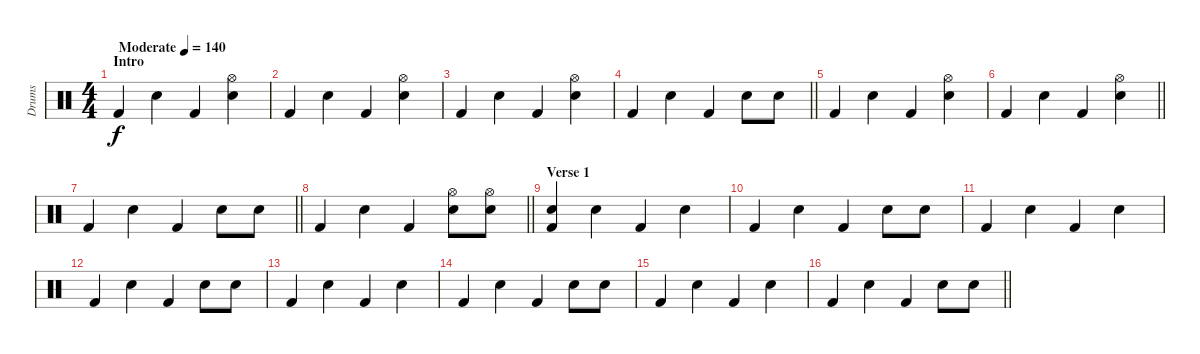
\track ("Drums" "Drums") {instrument percussion}
\staff {score}
\articulation defaults
\ts (4 4)
\section ("" "Intro")
\tempo (140 "Moderate")
\clef neutral
\ks c "Kick (hit) 2".4{dy f} "Snare (hit) 2".4 "Kick (hit) 2".4
("Snare (hit) 2" "Hi-Hat (open)").4 |
"Kick (hit) 2".4 "Snare (hit) 2".4 "Kick (hit) 2".4 ("Snare (hit) 2" "Hi-Hat (open)").4 |
"Kick (hit) 2".4 "Snare (hit) 2".4 "Kick (hit) 2".4 ("Snare (hit) 2" "Hi-Hat (open)").4 |
\barLineRight lightlight "Kick (hit) 2".4 "Snare (hit) 2".4 "Kick (hit) 2".4 "Snare (hit) 2".8 "Snare (hit) 2".8
|
"Kick (hit) 2".4 "Snare (hit) 2".4 "Kick (hit) 2".4 ("Snare (hit) 2" "Hi-Hat (open)").4 |
\barLineRight lightlight "Kick (hit) 2".4 "Snare (hit) 2".4 "Kick (hit) 2".4
("Snare (hit) 2" "Hi-Hat (open)").4 |
\barLineRight lightlight "Kick (hit) 2".4 "Snare (hit) 2".4 "Kick (hit) 2".4 "Snare (hit) 2".8 "Snare (hit) 2".8
|
\barLineRight lightlight "Kick (hit) 2".4 "Snare (hit) 2".4 "Kick (hit) 2".4
("Snare (hit) 2" "Hi-Hat (open)").8 ("Snare (hit) 2" "Hi-Hat (open)").8 |
\section ("" "Verse 1")
("Kick (hit) 2" "Snare (hit) 2").4 "Snare (hit) 2".4 "Kick (hit) 2".4 "Snare (hit) 2".4 |
"Kick (hit) 2".4 "Snare (hit) 2".4 "Kick (hit) 2".4 "Snare (hit) 2".8 "Snare (hit) 2".8 |
"Kick (hit) 2".4 "Snare (hit) 2".4 "Kick (hit) 2".4 "Snare (hit) 2".4 |
"Kick (hit) 2".4 "Snare (hit) 2".4 "Kick (hit) 2".4 "Snare (hit) 2".8 "Snare (hit) 2".8 |
"Kick (hit) 2".4 "Snare (hit) 2".4 "Kick (hit) 2".4 "Snare (hit) 2".4 |
"Kick (hit) 2".4 "Snare (hit) 2".4 "Kick (hit) 2".4 "Snare (hit) 2".8 "Snare (hit) 2".8 |
"Kick (hit) 2".4 "Snare (hit) 2".4 "Kick (hit) 2".4 "Snare (hit) 2".4 |
\barLineRight lightlight "Kick (hit) 2".4 "Snare (hit) 2".4 "Kick (hit) 2".4 "Snare (hit) 2".8 "Snare (hit) 2".8
